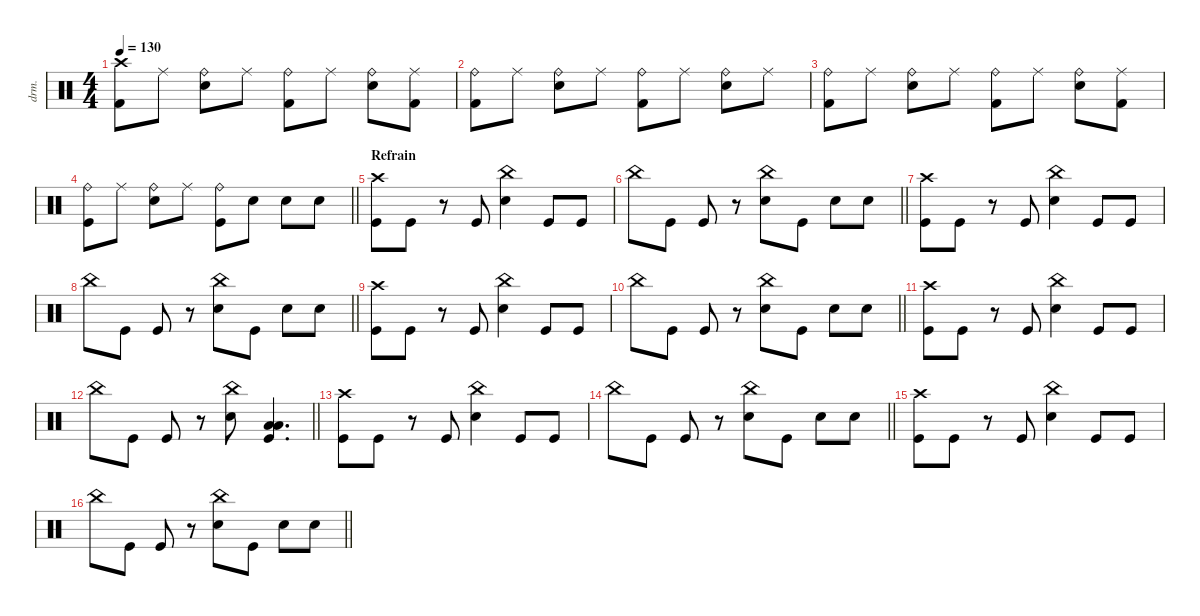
\defaultSystemsLayout 4
\hideDynamics
\bracketExtendMode nobrackets
\otherSystemsTrackNameOrientation horizontal
\track ("Manouche" "drm.") {instrument percussion}
\staff {score}
\articulation defaults
\ts (4 4)
\tempo 130
\clef neutral
\ks c
("Crash high (hit)" "Kick (hit) 2").8{dy f} "Ride (middle)".8{dy mf} ("Ride (bell)" "Snare (hit) 2").8{dy f} "Ride (middle)".8{dy mf} ("Ride (bell)" "Kick (hit) 2").8{dy f} "Ride (middle)".8{dy mf} ("Ride (bell)" "Snare (hit) 2").8{dy f} ("Ride (middle)" "Kick (hit) 2").8{dy mf} |
("Ride (bell)" "Kick (hit) 2").8{dy f} "Ride (middle)".8{dy mf} ("Ride (bell)" "Snare (hit) 2").8{dy f} "Ride (middle)".8{dy mf} ("Ride (bell)" "Kick (hit) 2").8{dy f} "Ride (middle)".8{dy mf} ("Ride (bell)" "Snare (hit) 2").8{dy f} "Ride (middle)".8{dy mf} |
("Ride (bell)" "Kick (hit) 2").8{dy f} "Ride (middle)".8{dy mf} ("Ride (bell)" "Snare (hit) 2").8{dy f} "Ride (middle)".8{dy mf} ("Ride (bell)" "Kick (hit) 2").8{dy f} "Ride (middle)".8{dy mf} ("Ride (bell)" "Snare (hit) 2").8{dy f} ("Ride (middle)" "Kick (hit) 2").8{dy mf} |
\barLineRight lightlight
("Ride (bell)" "Kick (hit)").8{dy f} "Ride (middle)".8{dy mf} ("Ride (bell)" "Snare (hit) 2").8{dy f} "Ride (middle)".8{dy mf} ("Ride (bell)" "Kick (hit)").8{dy f} "Snare (hit) 2".8 "Snare (hit) 2".8 "Snare (hit) 2".8 |
\section ("" "Refrain")
("Crash high (hit)" "Kick (hit)").8 "Kick (hit)".8 r.8 "Kick (hit)".8 ("China (hit)" "Snare (hit) 2").4 "Kick (hit)".8 "Kick (hit)".8 |
\barLineRight lightlight "China (hit)".8 "Kick (hit)".8 "Kick (hit)".8
r.8 ("China (hit)" "Snare (hit) 2").8 "Kick (hit)".8 "Snare (hit) 2".8 "Snare (hit) 2".8 |
("Crash high (hit)" "Kick (hit)").8 "Kick (hit)".8 r.8 "Kick (hit)".8 ("China (hit)" "Snare (hit) 2").4 "Kick (hit)".8 "Kick (hit)".8 |
\barLineRight lightlight "China (hit)".8 "Kick (hit)".8 "Kick (hit)".8
r.8 ("China (hit)" "Snare (hit) 2").8 "Kick (hit)".8 "Snare (hit) 2".8 "Snare (hit) 2".8 |
("Crash high (hit)" "Kick (hit)").8 "Kick (hit)".8 r.8 "Kick (hit)".8 ("China (hit)" "Snare (hit) 2").4 "Kick (hit)".8 "Kick (hit)".8 |
\barLineRight lightlight "China (hit)".8 "Kick (hit)".8 "Kick (hit)".8
r.8 ("China (hit)" "Snare (hit) 2").8 "Kick (hit)".8 "Snare (hit) 2".8 "Snare (hit) 2".8 |
("Crash high (hit)" "Kick (hit)").8 "Kick (hit)".8 r.8 "Kick (hit)".8 ("China (hit)" "Snare (hit) 2").4 "Kick (hit)".8 "Kick (hit)".8 |
\barLineRight lightlight "China (hit)".8 "Kick (hit)".8 "Kick (hit)".8
r.8 ("China (hit)" "Snare (hit) 2").8 ("Low Tom (hit)" "Kick (hit)" "Low Floor Tom (hit)").4{d dy ff} |
("Crash high (hit)" "Kick (hit)").8{dy f} "Kick (hit)".8 r.8 "Kick (hit)".8 ("China (hit)" "Snare (hit) 2").4 "Kick (hit)".8 "Kick (hit)".8 |
\barLineRight lightlight "China (hit)".8 "Kick (hit)".8 "Kick (hit)".8
r.8 ("China (hit)" "Snare (hit) 2").8 "Kick (hit)".8 "Snare (hit) 2".8 "Snare (hit) 2".8 |
("Crash high (hit)" "Kick (hit)").8 "Kick (hit)".8 r.8 "Kick (hit)".8 ("China (hit)" "Snare (hit) 2").4 "Kick (hit)".8 "Kick (hit)".8 |
\barLineRight lightlight "China (hit)".8 "Kick (hit)".8 "Kick (hit)".8
r.8 ("China (hit)" "Snare (hit) 2").8 "Kick (hit)".8 "Snare (hit) 2".8 "Snare (hit) 2".8
